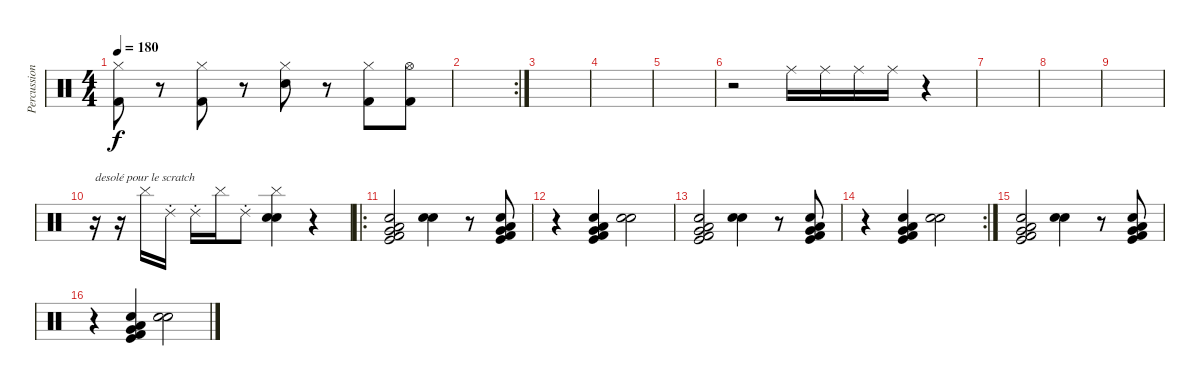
\track ("Percussions" "Percussion") {instrument percussion}
\staff {score}
\articulation defaults
\ts (4 4)
\tempo 180
\clef neutral
\ks c
("Hi-Hat (closed)" "Kick (hit) 2").8{dy f} r.8 ("Hi-Hat (closed)" "Kick (hit) 2").8 r.8 ("Hi-Hat (closed)" "Snare (hit) 2").8 r.8 ("Hi-Hat (closed)" "Kick (hit) 2").8 ("Hi-Hat (open)" "Kick (hit) 2").8 |
\rc 2
|
|
|
|
r.2 "Ride (middle)".16 "Ride (middle)".16 "Ride (middle)".16 "Ride (middle)".16 r.4 |
|
|
|
r.16{txt "desolé pour le scratch"} r.16 "Cymbal (hit)".16 "Ride (choke) 2".16 "Ride (choke) 2".16 "Cymbal (hit)".16 "Ride (choke) 2".8 ("Snare (hit) 2" "Electric Snare (hit)" "Cymbal (hit)").4 r.4 |
\ro
("Kick (hit) 2" "Low Floor Tom (hit)" "Kick (hit)" "Electric Snare (hit)" "Very Low Tom (hit)").2 ("Electric Snare (hit)" "Snare (hit) 2").4 r.8 ("Kick (hit) 2" "Low Floor Tom (hit)" "Kick (hit)" "Electric Snare (hit)" "Very Low Tom (hit)").8 |
r.4 ("Kick (hit) 2" "Low Floor Tom (hit)" "Kick (hit)" "Electric Snare (hit)" "Very Low Tom (hit)").4 ("Electric Snare (hit)" "Snare (hit) 2").2 |
("Kick (hit) 2" "Low Floor Tom (hit)" "Kick (hit)" "Electric Snare (hit)" "Very Low Tom (hit)").2 ("Electric Snare (hit)" "Snare (hit) 2").4 r.8 ("Kick (hit) 2" "Low Floor Tom (hit)" "Kick (hit)" "Electric Snare (hit)" "Very Low Tom (hit)").8 |
\rc 2
r.4 ("Kick (hit) 2" "Low Floor Tom (hit)" "Kick (hit)" "Electric Snare (hit)" "Very Low Tom (hit)").4 ("Electric Snare (hit)" "Snare (hit) 2").2 |
("Kick (hit) 2" "Low Floor Tom (hit)" "Kick (hit)" "Electric Snare (hit)" "Very Low Tom (hit)").2 ("Electric Snare (hit)" "Snare (hit) 2").4 r.8 ("Kick (hit) 2" "Low Floor Tom (hit)" "Kick (hit)" "Electric Snare (hit)" "Very Low Tom (hit)").8 |
r.4 ("Kick (hit) 2" "Low Floor Tom (hit)" "Kick (hit)" "Electric Snare (hit)" "Very Low Tom (hit)").4 ("Electric Snare (hit)" "Snare (hit) 2").2
